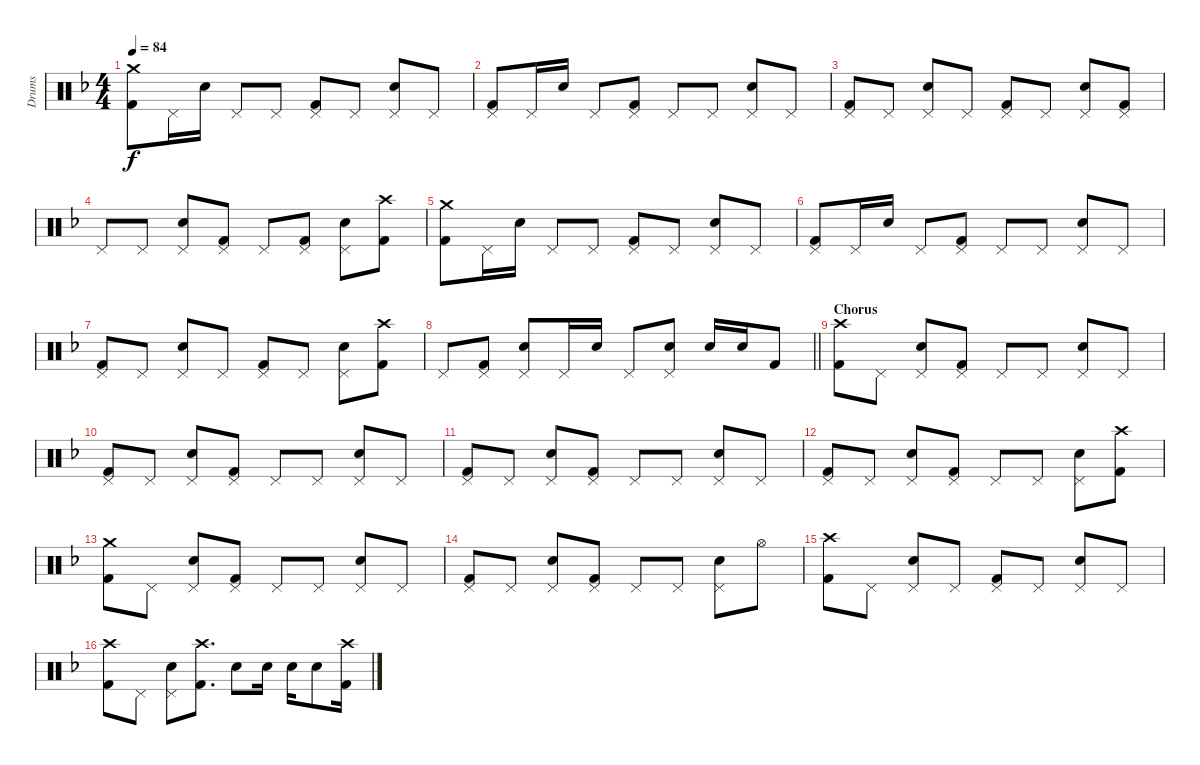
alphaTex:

\track ("Drums" "Drums") {instrument percussion}
\staff {score}
\articulation defaults
\ts (4 4)
\tempo 84
\clef neutral
\ks f
("Crash medium (hit)" "Kick (hit) 2").8{dy f} "Pedal Hi-Hat (hit)".16 "Snare (hit) 2".16 "Pedal Hi-Hat (hit)".8 "Pedal Hi-Hat (hit)".8 ("Pedal Hi-Hat (hit)" "Kick (hit) 2").8 "Pedal Hi-Hat (hit)".8 ("Pedal Hi-Hat (hit)" "Snare (hit) 2").8 "Pedal Hi-Hat (hit)".8 |
("Pedal Hi-Hat (hit)" "Kick (hit) 2").8 "Pedal Hi-Hat (hit)".16 "Snare (hit) 2".16 "Pedal Hi-Hat (hit)".8 ("Pedal Hi-Hat (hit)" "Kick (hit) 2").8 "Pedal Hi-Hat (hit)".8 "Pedal Hi-Hat (hit)".8 ("Pedal Hi-Hat (hit)" "Snare (hit) 2").8 "Pedal Hi-Hat (hit)".8 |
("Pedal Hi-Hat (hit)" "Kick (hit) 2").8 "Pedal Hi-Hat (hit)".8 ("Pedal Hi-Hat (hit)" "Snare (hit) 2").8 "Pedal Hi-Hat (hit)".8 ("Pedal Hi-Hat (hit)" "Kick (hit) 2").8 "Pedal Hi-Hat (hit)".8 ("Pedal Hi-Hat (hit)" "Snare (hit) 2").8 ("Pedal Hi-Hat (hit)" "Kick (hit) 2").8 |
"Pedal Hi-Hat (hit)".8 "Pedal Hi-Hat (hit)".8 ("Pedal Hi-Hat (hit)" "Snare (hit) 2").8 ("Pedal Hi-Hat (hit)" "Kick (hit) 2").8 "Pedal Hi-Hat (hit)".8 ("Pedal Hi-Hat (hit)" "Kick (hit) 2").8 ("Pedal Hi-Hat (hit)" "Snare (hit) 2").8 ("Crash high (hit)" "Kick (hit) 2").8 |
("Crash medium (hit)" "Kick (hit) 2").8 "Pedal Hi-Hat (hit)".16 "Snare (hit) 2".16 "Pedal Hi-Hat (hit)".8 "Pedal Hi-Hat (hit)".8 ("Pedal Hi-Hat (hit)" "Kick (hit) 2").8 "Pedal Hi-Hat (hit)".8 ("Pedal Hi-Hat (hit)" "Snare (hit) 2").8 "Pedal Hi-Hat (hit)".8 |
("Pedal Hi-Hat (hit)" "Kick (hit) 2").8 "Pedal Hi-Hat (hit)".16 "Snare (hit) 2".16 "Pedal Hi-Hat (hit)".8 ("Pedal Hi-Hat (hit)" "Kick (hit) 2").8 "Pedal Hi-Hat (hit)".8 "Pedal Hi-Hat (hit)".8 ("Pedal Hi-Hat (hit)" "Snare (hit) 2").8 "Pedal Hi-Hat (hit)".8 |
("Pedal Hi-Hat (hit)" "Kick (hit) 2").8 "Pedal Hi-Hat (hit)".8 ("Pedal Hi-Hat (hit)" "Snare (hit) 2").8 "Pedal Hi-Hat (hit)".8 ("Pedal Hi-Hat (hit)" "Kick (hit) 2").8 "Pedal Hi-Hat (hit)".8 ("Pedal Hi-Hat (hit)" "Snare (hit) 2").8 ("Crash high (hit)" "Kick (hit) 2").8 |
\barLineRight lightlight "Pedal Hi-Hat (hit)".8
("Pedal Hi-Hat (hit)" "Kick (hit) 2").8 ("Pedal Hi-Hat (hit)" "Snare (hit) 2").8 "Pedal Hi-Hat (hit)".16 "Snare (hit) 2".16 "Pedal Hi-Hat (hit)".8 ("Pedal Hi-Hat (hit)" "Snare (hit) 2").8 "Snare (hit) 2".16 "Snare (hit) 2".16 "Kick (hit) 2".8 |
\section ("" "Chorus")
("Crash high (hit)" "Kick (hit) 2").8 "Pedal Hi-Hat (hit)".8 ("Pedal Hi-Hat (hit)" "Snare (hit) 2").8 ("Pedal Hi-Hat (hit)" "Kick (hit) 2").8 "Pedal Hi-Hat (hit)".8 "Pedal Hi-Hat (hit)".8 ("Pedal Hi-Hat (hit)" "Snare (hit) 2").8 "Pedal Hi-Hat (hit)".8 |
("Pedal Hi-Hat (hit)" "Kick (hit) 2").8 "Pedal Hi-Hat (hit)".8 ("Pedal Hi-Hat (hit)" "Snare (hit) 2").8 ("Pedal Hi-Hat (hit)" "Kick (hit) 2").8 "Pedal Hi-Hat (hit)".8 "Pedal Hi-Hat (hit)".8 ("Pedal Hi-Hat (hit)" "Snare (hit) 2").8 "Pedal Hi-Hat (hit)".8 |
("Pedal Hi-Hat (hit)" "Kick (hit) 2").8 "Pedal Hi-Hat (hit)".8 ("Pedal Hi-Hat (hit)" "Snare (hit) 2").8 ("Pedal Hi-Hat (hit)" "Kick (hit) 2").8 "Pedal Hi-Hat (hit)".8 "Pedal Hi-Hat (hit)".8 ("Pedal Hi-Hat (hit)" "Snare (hit) 2").8 "Pedal Hi-Hat (hit)".8 |
("Pedal Hi-Hat (hit)" "Kick (hit) 2").8 "Pedal Hi-Hat (hit)".8 ("Pedal Hi-Hat (hit)" "Snare (hit) 2").8 ("Pedal Hi-Hat (hit)" "Kick (hit) 2").8 "Pedal Hi-Hat (hit)".8 "Pedal Hi-Hat (hit)".8 ("Pedal Hi-Hat (hit)" "Snare (hit) 2").8 ("Crash high (hit)" "Kick (hit) 2").8 |
("Crash medium (hit)" "Kick (hit) 2").8 "Pedal Hi-Hat (hit)".8 ("Pedal Hi-Hat (hit)" "Snare (hit) 2").8 ("Pedal Hi-Hat (hit)" "Kick (hit) 2").8 "Pedal Hi-Hat (hit)".8 "Pedal Hi-Hat (hit)".8 ("Pedal Hi-Hat (hit)" "Snare (hit) 2").8 "Pedal Hi-Hat (hit)".8 |
("Pedal Hi-Hat (hit)" "Kick (hit) 2").8 "Pedal Hi-Hat (hit)".8 ("Pedal Hi-Hat (hit)" "Snare (hit) 2").8 ("Pedal Hi-Hat (hit)" "Kick (hit) 2").8 "Pedal Hi-Hat (hit)".8 "Pedal Hi-Hat (hit)".8 ("Pedal Hi-Hat (hit)" "Snare (hit) 2").8 "Hi-Hat (open)".8 |
("Crash high (hit)" "Kick (hit) 2").8 "Pedal Hi-Hat (hit)".8 ("Pedal Hi-Hat (hit)" "Snare (hit) 2").8 "Pedal Hi-Hat (hit)".8 ("Pedal Hi-Hat (hit)" "Kick (hit) 2").8 "Pedal Hi-Hat (hit)".8 ("Pedal Hi-Hat (hit)" "Snare (hit) 2").8 "Pedal Hi-Hat (hit)".8 |
("Crash high (hit)" "Kick (hit) 2").8 "Pedal Hi-Hat (hit)".8 ("Pedal Hi-Hat (hit)" "Snare (hit) 2").8 ("Crash high (hit)" "Kick (hit) 2").8{d} "Snare (hit) 2".8 "Snare (hit) 2".16 "Snare (hit) 2".16 "Snare (hit) 2".8 ("Crash high (hit)" "Kick (hit) 2").16
